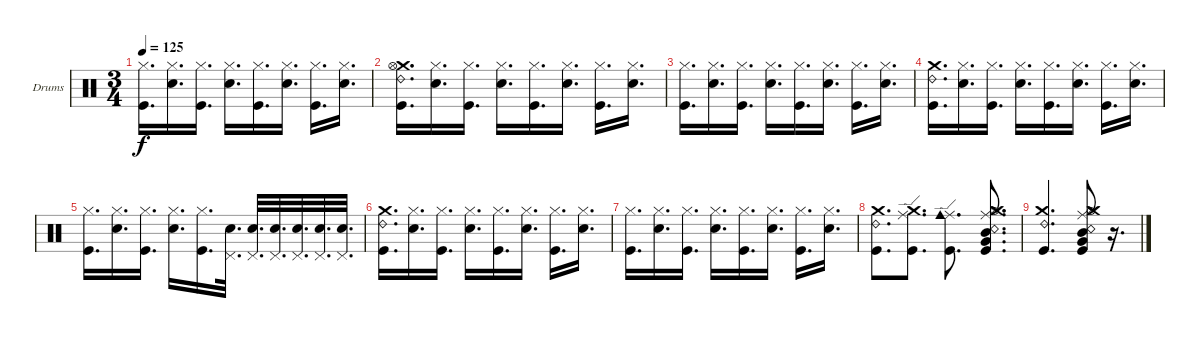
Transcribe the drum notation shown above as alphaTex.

\defaultSystemsLayout 4
\bracketExtendMode groupsimilarinstruments
\firstSystemTrackNameOrientation horizontal
\otherSystemsTrackNameOrientation horizontal
\track ("Drumkit" "Drums") {instrument percussion}
\staff {score}
\articulation defaults
\ts (3 4)
\tempo 125
\clef neutral
\ks c
("Kick (hit)" "Hi-Hat (closed)").16{d dy f} ("Snare (hit) 2" "Hi-Hat (closed)").16{d} ("Kick (hit)" "Hi-Hat (closed)").16{d} ("Snare (hit) 2" "Hi-Hat (closed)").16{d} ("Kick (hit)" "Hi-Hat (closed)").16{d} ("Snare (hit) 2" "Hi-Hat (closed)").16{d} ("Kick (hit)" "Hi-Hat (closed)").16{d} ("Snare (hit) 2" "Hi-Hat (closed)").16{d} |
("Kick (hit)" "Crash medium (hit)" "Ride (bell) 2" "Hi-Hat (open)").16{d} ("Snare (hit) 2" "Hi-Hat (closed)").16{d} ("Kick (hit)" "Hi-Hat (closed)").16{d} ("Snare (hit) 2" "Hi-Hat (closed)").16{d} ("Kick (hit)" "Hi-Hat (closed)").16{d} ("Snare (hit) 2" "Hi-Hat (closed)").16{d} ("Kick (hit)" "Hi-Hat (closed)").16{d} ("Snare (hit) 2" "Hi-Hat (closed)").16{d} |
("Kick (hit)" "Hi-Hat (closed)").16{d} ("Snare (hit) 2" "Hi-Hat (closed)").16{d} ("Kick (hit)" "Hi-Hat (closed)").16{d} ("Snare (hit) 2" "Hi-Hat (closed)").16{d} ("Kick (hit)" "Hi-Hat (closed)").16{d} ("Snare (hit) 2" "Hi-Hat (closed)").16{d} ("Kick (hit)" "Hi-Hat (closed)").16{d} ("Snare (hit) 2" "Hi-Hat (closed)").16{d} |
("Kick (hit)" "Crash medium (hit)" "Ride (bell) 2").16{d} ("Snare (hit) 2" "Hi-Hat (closed)").16{d} ("Kick (hit)" "Hi-Hat (closed)").16{d} ("Snare (hit) 2" "Hi-Hat (closed)").16{d} ("Kick (hit)" "Hi-Hat (closed)").16{d} ("Snare (hit) 2" "Hi-Hat (closed)").16{d} ("Kick (hit)" "Hi-Hat (closed)").16{d} ("Snare (hit) 2" "Hi-Hat (closed)").16{d} |
("Kick (hit)" "Hi-Hat (closed)").16{d} ("Snare (hit) 2" "Hi-Hat (closed)").16{d} ("Kick (hit)" "Hi-Hat (closed)").16{d} ("Snare (hit) 2" "Hi-Hat (closed)").16{d} ("Kick (hit)" "Hi-Hat (closed)").16{d} ("Pedal Hi-Hat (hit)" "Snare (hit) 2").32{d} ("Pedal Hi-Hat (hit)" "Snare (hit) 2").32{d} ("Pedal Hi-Hat (hit)" "Snare (hit) 2").32{d} ("Pedal Hi-Hat (hit)" "Snare (hit) 2").32{d} ("Pedal Hi-Hat (hit)" "Snare (hit) 2").32{d} ("Pedal Hi-Hat (hit)" "Snare (hit) 2").32{d} |
("Kick (hit)" "Crash medium (hit)" "Ride (bell) 2").16{d} ("Snare (hit) 2" "Hi-Hat (closed)").16{d} ("Kick (hit)" "Hi-Hat (closed)").16{d} ("Snare (hit) 2" "Hi-Hat (closed)").16{d} ("Kick (hit)" "Hi-Hat (closed)").16{d} ("Snare (hit) 2" "Hi-Hat (closed)").16{d} ("Kick (hit)" "Hi-Hat (closed)").16{d} ("Snare (hit) 2" "Hi-Hat (closed)").16{d} |
("Kick (hit)" "Hi-Hat (closed)").16{d} ("Snare (hit) 2" "Hi-Hat (closed)").16{d} ("Kick (hit)" "Hi-Hat (closed)").16{d} ("Snare (hit) 2" "Hi-Hat (closed)").16{d} ("Kick (hit)" "Hi-Hat (closed)").16{d} ("Snare (hit) 2" "Hi-Hat (closed)").16{d} ("Kick (hit)" "Hi-Hat (closed)").16{d} ("Snare (hit) 2" "Hi-Hat (closed)").16{d} |
("Kick (hit)" "Crash medium (hit)" "Ride (bell) 2").8{d} ("Kick (hit)" "Crash medium (hit)" "Ride (edge)").8{d} ("Kick (hit)" "Ride (edge)" "Cowbell medium (hit)").8{d} ("Kick (hit)" "Crash medium (hit)" "Ride (middle)" "Snare (rim shot)" "Hi-Hat (open)" "Mid Tom (hit)" "Very Low Tom (hit)").8{d} |
("Kick (hit)" "Crash medium (hit)" "Ride (bell) 2").4{d} ("Kick (hit)" "Crash medium (hit)" "Ride (middle)" "Snare (rim shot)" "Hi-Hat (open)" "Mid Tom (hit)" "Very Low Tom (hit)").8 r.16{d}
